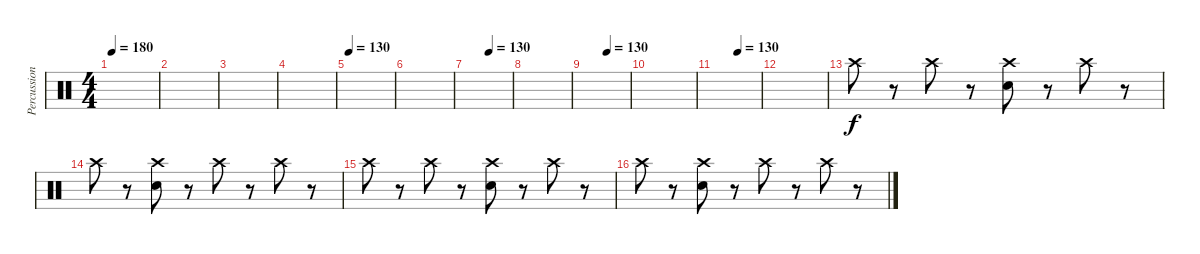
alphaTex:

\track ("Percussion" "Percussion") {instrument percussion}
\staff {score}
\articulation defaults
\ts (4 4)
\tempo 180
\clef neutral
\ks c
|
|
|
|
\tempo 130
|
|
\tempo (130 0.5)
|
|
\tempo (130 0.5)
|
|
\tempo (130 0.5)
|
|
"Crash high (hit)".8 r.8 "Crash high (hit)".8 r.8 ("Crash high (hit)" "Electric Snare (hit)").8 r.8 "Crash high (hit)".8 r.8 |
"Crash high (hit)".8 r.8 ("Crash high (hit)" "Electric Snare (hit)").8 r.8 "Crash high (hit)".8 r.8 "Crash high (hit)".8 r.8 |
"Crash high (hit)".8 r.8 "Crash high (hit)".8 r.8 ("Crash high (hit)" "Electric Snare (hit)").8 r.8 "Crash high (hit)".8 r.8 |
"Crash high (hit)".8 r.8 ("Crash high (hit)" "Electric Snare (hit)").8 r.8 "Crash high (hit)".8 r.8 "Crash high (hit)".8 r.8
